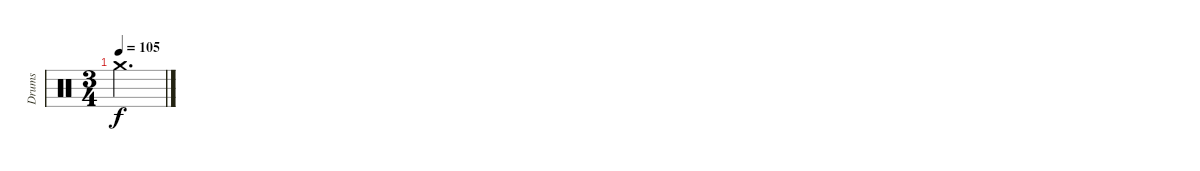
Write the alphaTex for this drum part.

\track ("Drums" "Drums") {instrument percussion}
\staff {score}
\articulation defaults
\ts (3 4)
\tempo 105
\clef neutral
\ks c "Crash medium (hit)".2{d dy f}
